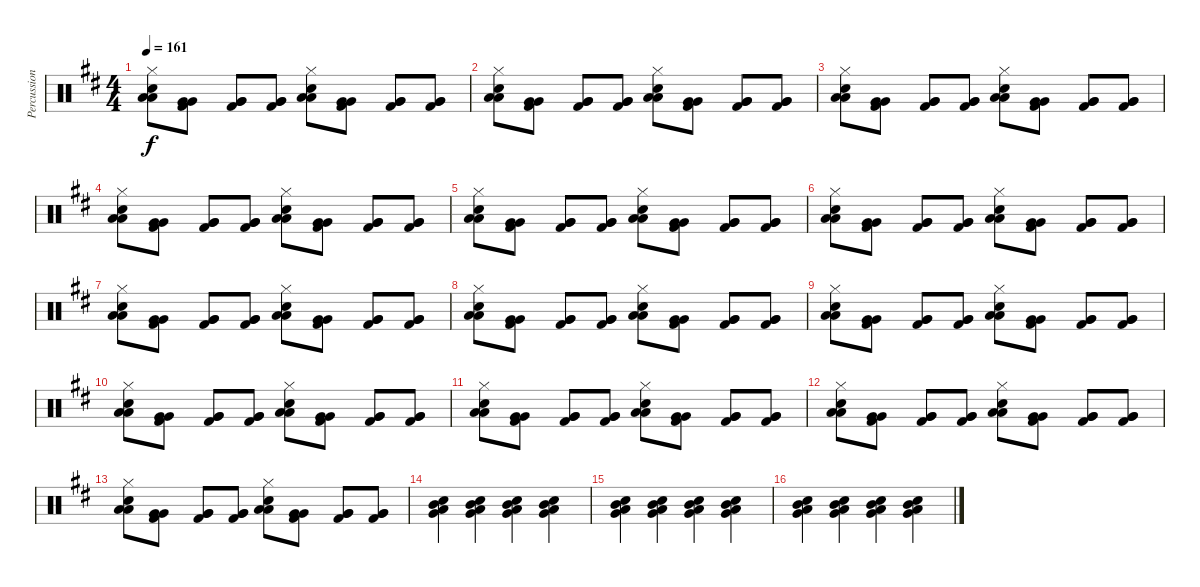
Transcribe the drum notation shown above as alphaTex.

\track ("Percussion" "Percussion") {instrument percussion}
\staff {score}
\articulation defaults
\ts (4 4)
\tempo 161
\clef neutral
\ks d
("Hi-Hat (closed)" "Low Floor Tom (hit)" "Low Floor Tom (hit)" "Electric Snare (hit)").8{dy f} ("Kick (hit) 2" "Very Low Tom (hit)" "Very Low Tom (hit)").8 ("Kick (hit) 2" "Very Low Tom (hit)" "Very Low Tom (hit)").8 ("Kick (hit) 2" "Very Low Tom (hit)" "Very Low Tom (hit)").8 ("Hi-Hat (closed)" "Low Tom (hit)" "Low Tom (hit)" "Electric Snare (hit)").8 ("Kick (hit) 2" "Very Low Tom (hit)" "Very Low Tom (hit)").8 ("Kick (hit) 2" "Very Low Tom (hit)" "Very Low Tom (hit)").8 ("Kick (hit) 2" "Very Low Tom (hit)" "Very Low Tom (hit)").8 |
("Hi-Hat (closed)" "Low Floor Tom (hit)" "Low Floor Tom (hit)" "Electric Snare (hit)").8 ("Kick (hit) 2" "Very Low Tom (hit)" "Very Low Tom (hit)").8 ("Kick (hit) 2" "Very Low Tom (hit)" "Very Low Tom (hit)").8 ("Kick (hit) 2" "Very Low Tom (hit)" "Very Low Tom (hit)").8 ("Hi-Hat (closed)" "Low Tom (hit)" "Low Tom (hit)" "Electric Snare (hit)").8 ("Kick (hit) 2" "Very Low Tom (hit)" "Very Low Tom (hit)").8 ("Kick (hit) 2" "Very Low Tom (hit)" "Very Low Tom (hit)").8 ("Kick (hit) 2" "Very Low Tom (hit)" "Very Low Tom (hit)").8 |
("Hi-Hat (closed)" "Low Floor Tom (hit)" "Low Floor Tom (hit)" "Electric Snare (hit)").8 ("Kick (hit) 2" "Very Low Tom (hit)" "Very Low Tom (hit)").8 ("Kick (hit) 2" "Very Low Tom (hit)" "Very Low Tom (hit)").8 ("Kick (hit) 2" "Very Low Tom (hit)" "Very Low Tom (hit)").8 ("Hi-Hat (closed)" "Low Tom (hit)" "Low Tom (hit)" "Electric Snare (hit)").8 ("Kick (hit) 2" "Very Low Tom (hit)" "Very Low Tom (hit)").8 ("Kick (hit) 2" "Very Low Tom (hit)" "Very Low Tom (hit)").8 ("Kick (hit) 2" "Very Low Tom (hit)" "Very Low Tom (hit)").8 |
("Hi-Hat (closed)" "Low Floor Tom (hit)" "Low Floor Tom (hit)" "Electric Snare (hit)").8 ("Kick (hit) 2" "Very Low Tom (hit)" "Very Low Tom (hit)").8 ("Kick (hit) 2" "Very Low Tom (hit)" "Very Low Tom (hit)").8 ("Kick (hit) 2" "Very Low Tom (hit)" "Very Low Tom (hit)").8 ("Hi-Hat (closed)" "Low Tom (hit)" "Low Tom (hit)" "Electric Snare (hit)").8 ("Kick (hit) 2" "Very Low Tom (hit)" "Very Low Tom (hit)").8 ("Kick (hit) 2" "Very Low Tom (hit)" "Very Low Tom (hit)").8 ("Kick (hit) 2" "Very Low Tom (hit)" "Very Low Tom (hit)").8 |
("Hi-Hat (closed)" "Low Floor Tom (hit)" "Low Floor Tom (hit)" "Electric Snare (hit)").8 ("Kick (hit) 2" "Very Low Tom (hit)" "Very Low Tom (hit)").8 ("Kick (hit) 2" "Very Low Tom (hit)" "Very Low Tom (hit)").8 ("Kick (hit) 2" "Very Low Tom (hit)" "Very Low Tom (hit)").8 ("Hi-Hat (closed)" "Low Tom (hit)" "Low Tom (hit)" "Electric Snare (hit)").8 ("Kick (hit) 2" "Very Low Tom (hit)" "Very Low Tom (hit)").8 ("Kick (hit) 2" "Very Low Tom (hit)" "Very Low Tom (hit)").8 ("Kick (hit) 2" "Very Low Tom (hit)" "Very Low Tom (hit)").8 |
("Hi-Hat (closed)" "Low Floor Tom (hit)" "Low Floor Tom (hit)" "Electric Snare (hit)").8 ("Kick (hit) 2" "Very Low Tom (hit)" "Very Low Tom (hit)").8 ("Kick (hit) 2" "Very Low Tom (hit)" "Very Low Tom (hit)").8 ("Kick (hit) 2" "Very Low Tom (hit)" "Very Low Tom (hit)").8 ("Hi-Hat (closed)" "Low Tom (hit)" "Low Tom (hit)" "Electric Snare (hit)").8 ("Kick (hit) 2" "Very Low Tom (hit)" "Very Low Tom (hit)").8 ("Kick (hit) 2" "Very Low Tom (hit)" "Very Low Tom (hit)").8 ("Kick (hit) 2" "Very Low Tom (hit)" "Very Low Tom (hit)").8 |
("Hi-Hat (closed)" "Low Floor Tom (hit)" "Low Floor Tom (hit)" "Electric Snare (hit)").8 ("Kick (hit) 2" "Very Low Tom (hit)" "Very Low Tom (hit)").8 ("Kick (hit) 2" "Very Low Tom (hit)" "Very Low Tom (hit)").8 ("Kick (hit) 2" "Very Low Tom (hit)" "Very Low Tom (hit)").8 ("Hi-Hat (closed)" "Low Tom (hit)" "Low Tom (hit)" "Electric Snare (hit)").8 ("Kick (hit) 2" "Very Low Tom (hit)" "Very Low Tom (hit)").8 ("Kick (hit) 2" "Very Low Tom (hit)" "Very Low Tom (hit)").8 ("Kick (hit) 2" "Very Low Tom (hit)" "Very Low Tom (hit)").8 |
("Hi-Hat (closed)" "Low Floor Tom (hit)" "Low Floor Tom (hit)" "Electric Snare (hit)").8 ("Kick (hit) 2" "Very Low Tom (hit)" "Very Low Tom (hit)").8 ("Kick (hit) 2" "Very Low Tom (hit)" "Very Low Tom (hit)").8 ("Kick (hit) 2" "Very Low Tom (hit)" "Very Low Tom (hit)").8 ("Hi-Hat (closed)" "Low Tom (hit)" "Low Tom (hit)" "Electric Snare (hit)").8 ("Kick (hit) 2" "Very Low Tom (hit)" "Very Low Tom (hit)").8 ("Kick (hit) 2" "Very Low Tom (hit)" "Very Low Tom (hit)").8 ("Kick (hit) 2" "Very Low Tom (hit)" "Very Low Tom (hit)").8 |
("Hi-Hat (closed)" "Low Floor Tom (hit)" "Low Floor Tom (hit)" "Electric Snare (hit)").8 ("Kick (hit) 2" "Very Low Tom (hit)" "Very Low Tom (hit)").8 ("Kick (hit) 2" "Very Low Tom (hit)" "Very Low Tom (hit)").8 ("Kick (hit) 2" "Very Low Tom (hit)" "Very Low Tom (hit)").8 ("Hi-Hat (closed)" "Low Tom (hit)" "Low Tom (hit)" "Electric Snare (hit)").8 ("Kick (hit) 2" "Very Low Tom (hit)" "Very Low Tom (hit)").8 ("Kick (hit) 2" "Very Low Tom (hit)" "Very Low Tom (hit)").8 ("Kick (hit) 2" "Very Low Tom (hit)" "Very Low Tom (hit)").8 |
("Hi-Hat (closed)" "Low Floor Tom (hit)" "Low Floor Tom (hit)" "Electric Snare (hit)").8 ("Kick (hit) 2" "Very Low Tom (hit)" "Very Low Tom (hit)").8 ("Kick (hit) 2" "Very Low Tom (hit)" "Very Low Tom (hit)").8 ("Kick (hit) 2" "Very Low Tom (hit)" "Very Low Tom (hit)").8 ("Hi-Hat (closed)" "Low Tom (hit)" "Low Tom (hit)" "Electric Snare (hit)").8 ("Kick (hit) 2" "Very Low Tom (hit)" "Very Low Tom (hit)").8 ("Kick (hit) 2" "Very Low Tom (hit)" "Very Low Tom (hit)").8 ("Kick (hit) 2" "Very Low Tom (hit)" "Very Low Tom (hit)").8 |
("Hi-Hat (closed)" "Low Floor Tom (hit)" "Low Floor Tom (hit)" "Electric Snare (hit)").8 ("Kick (hit) 2" "Very Low Tom (hit)" "Very Low Tom (hit)").8 ("Kick (hit) 2" "Very Low Tom (hit)" "Very Low Tom (hit)").8 ("Kick (hit) 2" "Very Low Tom (hit)" "Very Low Tom (hit)").8 ("Hi-Hat (closed)" "Low Tom (hit)" "Low Tom (hit)" "Electric Snare (hit)").8 ("Kick (hit) 2" "Very Low Tom (hit)" "Very Low Tom (hit)").8 ("Kick (hit) 2" "Very Low Tom (hit)" "Very Low Tom (hit)").8 ("Kick (hit) 2" "Very Low Tom (hit)" "Very Low Tom (hit)").8 |
("Hi-Hat (closed)" "Low Floor Tom (hit)" "Low Floor Tom (hit)" "Electric Snare (hit)").8 ("Kick (hit) 2" "Very Low Tom (hit)" "Very Low Tom (hit)").8 ("Kick (hit) 2" "Very Low Tom (hit)" "Very Low Tom (hit)").8 ("Kick (hit) 2" "Very Low Tom (hit)" "Very Low Tom (hit)").8 ("Hi-Hat (closed)" "Low Tom (hit)" "Low Tom (hit)" "Electric Snare (hit)").8 ("Kick (hit) 2" "Very Low Tom (hit)" "Very Low Tom (hit)").8 ("Kick (hit) 2" "Very Low Tom (hit)" "Very Low Tom (hit)").8 ("Kick (hit) 2" "Very Low Tom (hit)" "Very Low Tom (hit)").8 |
("Hi-Hat (closed)" "Low Floor Tom (hit)" "Low Floor Tom (hit)" "Electric Snare (hit)").8 ("Kick (hit) 2" "Very Low Tom (hit)" "Very Low Tom (hit)").8 ("Kick (hit) 2" "Very Low Tom (hit)" "Very Low Tom (hit)").8 ("Kick (hit) 2" "Very Low Tom (hit)" "Very Low Tom (hit)").8 ("Hi-Hat (closed)" "Low Tom (hit)" "Low Tom (hit)" "Electric Snare (hit)").8 ("Kick (hit) 2" "Very Low Tom (hit)" "Very Low Tom (hit)").8 ("Kick (hit) 2" "Very Low Tom (hit)" "Very Low Tom (hit)").8 ("Kick (hit) 2" "Very Low Tom (hit)" "Very Low Tom (hit)").8 |
("Low Tom (hit)" "Mid Tom (hit)" "Electric Snare (hit)" "Very Low Tom (hit)").4 ("Low Tom (hit)" "Mid Tom (hit)" "Electric Snare (hit)" "Very Low Tom (hit)").4 ("Low Tom (hit)" "Mid Tom (hit)" "Electric Snare (hit)" "Very Low Tom (hit)").4 ("Low Tom (hit)" "Mid Tom (hit)" "Electric Snare (hit)" "Very Low Tom (hit)").4 |
("Low Tom (hit)" "Mid Tom (hit)" "Electric Snare (hit)" "Very Low Tom (hit)").4 ("Low Tom (hit)" "Mid Tom (hit)" "Electric Snare (hit)" "Very Low Tom (hit)").4 ("Low Tom (hit)" "Mid Tom (hit)" "Electric Snare (hit)" "Very Low Tom (hit)").4 ("Low Tom (hit)" "Mid Tom (hit)" "Electric Snare (hit)" "Very Low Tom (hit)").4 |
("Low Tom (hit)" "Mid Tom (hit)" "Electric Snare (hit)" "Very Low Tom (hit)").4 ("Low Tom (hit)" "Mid Tom (hit)" "Electric Snare (hit)" "Very Low Tom (hit)").4 ("Low Tom (hit)" "Mid Tom (hit)" "Electric Snare (hit)" "Very Low Tom (hit)").4 ("Low Tom (hit)" "Mid Tom (hit)" "Electric Snare (hit)" "Very Low Tom (hit)").4
